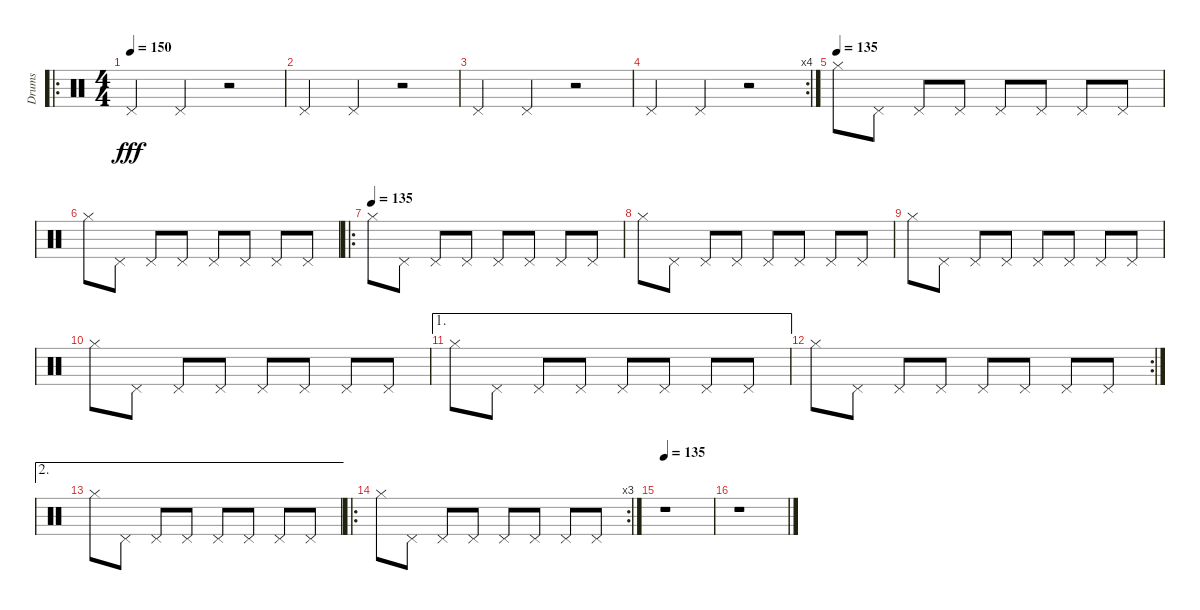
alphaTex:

\track ("Drums" "Drums") {instrument percussion}
\staff {score}
\articulation defaults
\ro
\ts (4 4)
\tempo 150
\tempo 135
\tempo 150
\clef neutral
\ks c "Pedal Hi-Hat (hit)".4{dy fff} "Pedal Hi-Hat (hit)".4
r.2 |
"Pedal Hi-Hat (hit)".4 "Pedal Hi-Hat (hit)".4 r.2 |
"Pedal Hi-Hat (hit)".4 "Pedal Hi-Hat (hit)".4 r.2 |
\rc 4 "Pedal Hi-Hat (hit)".4 "Pedal Hi-Hat (hit)".4
r.2 |
\tempo (135)
"Hi-Hat (closed)".8 "Pedal Hi-Hat (hit)".8 "Pedal Hi-Hat (hit)".8 "Pedal Hi-Hat (hit)".8 "Pedal Hi-Hat (hit)".8 "Pedal Hi-Hat (hit)".8 "Pedal Hi-Hat (hit)".8 "Pedal Hi-Hat (hit)".8 |
"Hi-Hat (closed)".8 "Pedal Hi-Hat (hit)".8 "Pedal Hi-Hat (hit)".8 "Pedal Hi-Hat (hit)".8 "Pedal Hi-Hat (hit)".8 "Pedal Hi-Hat (hit)".8 "Pedal Hi-Hat (hit)".8 "Pedal Hi-Hat (hit)".8 |
\ro
\tempo (135)
"Hi-Hat (closed)".8 "Pedal Hi-Hat (hit)".8 "Pedal Hi-Hat (hit)".8 "Pedal Hi-Hat (hit)".8 "Pedal Hi-Hat (hit)".8 "Pedal Hi-Hat (hit)".8 "Pedal Hi-Hat (hit)".8 "Pedal Hi-Hat (hit)".8 |
"Hi-Hat (closed)".8 "Pedal Hi-Hat (hit)".8 "Pedal Hi-Hat (hit)".8 "Pedal Hi-Hat (hit)".8 "Pedal Hi-Hat (hit)".8 "Pedal Hi-Hat (hit)".8 "Pedal Hi-Hat (hit)".8 "Pedal Hi-Hat (hit)".8 |
"Hi-Hat (closed)".8 "Pedal Hi-Hat (hit)".8 "Pedal Hi-Hat (hit)".8 "Pedal Hi-Hat (hit)".8 "Pedal Hi-Hat (hit)".8 "Pedal Hi-Hat (hit)".8 "Pedal Hi-Hat (hit)".8 "Pedal Hi-Hat (hit)".8 |
"Hi-Hat (closed)".8 "Pedal Hi-Hat (hit)".8 "Pedal Hi-Hat (hit)".8 "Pedal Hi-Hat (hit)".8 "Pedal Hi-Hat (hit)".8 "Pedal Hi-Hat (hit)".8 "Pedal Hi-Hat (hit)".8 "Pedal Hi-Hat (hit)".8 |
\ae 1 "Hi-Hat (closed)".8 "Pedal Hi-Hat (hit)".8 "Pedal Hi-Hat (hit)".8 "Pedal Hi-Hat (hit)".8 "Pedal Hi-Hat (hit)".8 "Pedal Hi-Hat (hit)".8 "Pedal Hi-Hat (hit)".8 "Pedal Hi-Hat (hit)".8
|
\rc 2 "Hi-Hat (closed)".8 "Pedal Hi-Hat (hit)".8 "Pedal Hi-Hat (hit)".8 "Pedal Hi-Hat (hit)".8 "Pedal Hi-Hat (hit)".8 "Pedal Hi-Hat (hit)".8 "Pedal Hi-Hat (hit)".8 "Pedal Hi-Hat (hit)".8
|
\ae 2 "Hi-Hat (closed)".8 "Pedal Hi-Hat (hit)".8 "Pedal Hi-Hat (hit)".8 "Pedal Hi-Hat (hit)".8 "Pedal Hi-Hat (hit)".8 "Pedal Hi-Hat (hit)".8 "Pedal Hi-Hat (hit)".8 "Pedal Hi-Hat (hit)".8
|
\ro
\rc 3 "Hi-Hat (closed)".8 "Pedal Hi-Hat (hit)".8 "Pedal Hi-Hat (hit)".8 "Pedal Hi-Hat (hit)".8 "Pedal Hi-Hat (hit)".8 "Pedal Hi-Hat (hit)".8 "Pedal Hi-Hat (hit)".8 "Pedal Hi-Hat (hit)".8
|
\tempo 135
r.1 |
r.1
